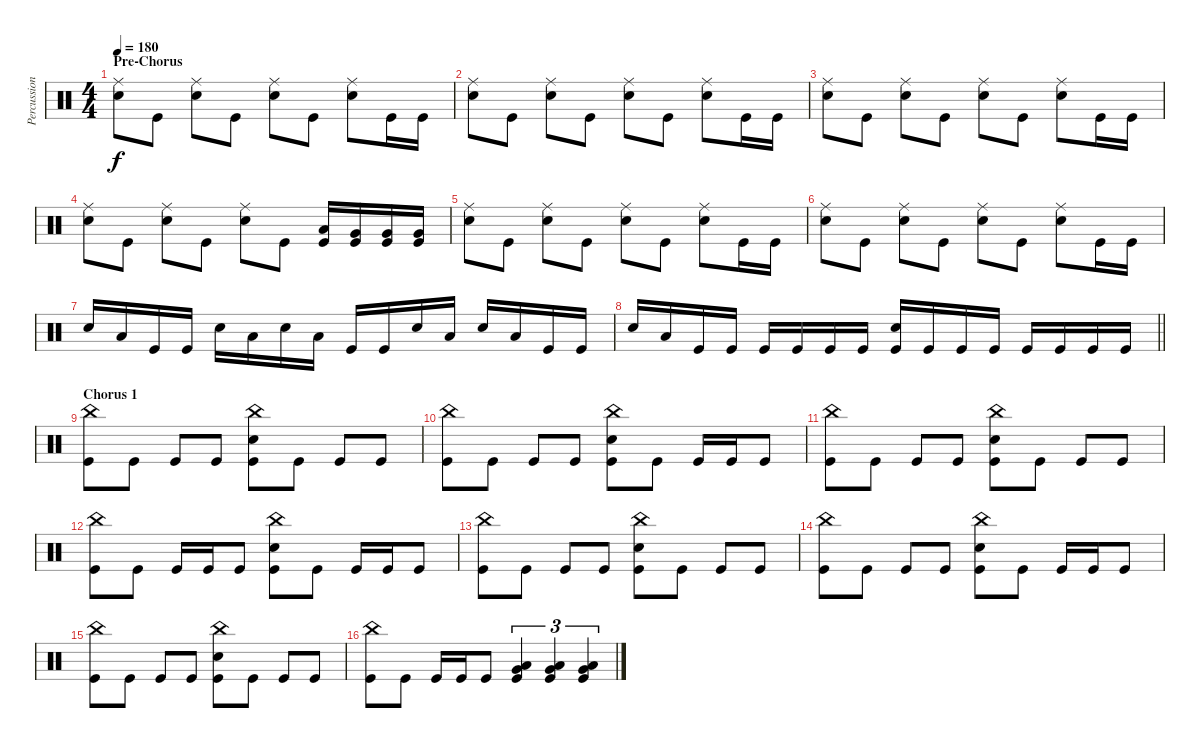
\track ("Percussion" "Percussion") {instrument percussion}
\staff {score}
\articulation defaults
\ts (4 4)
\section ("" "Pre-Chorus")
\tempo 180
\clef neutral
\ks c
("Ride (middle)" "Snare (hit) 2").8{dy f} "Kick (hit)".8 ("Ride (middle)" "Snare (hit) 2").8 "Kick (hit)".8 ("Snare (hit) 2" "Ride (middle)").8 "Kick (hit)".8 ("Ride (middle)" "Snare (hit) 2").8 "Kick (hit)".16 "Kick (hit)".16 |
("Ride (middle)" "Snare (hit) 2").8 "Kick (hit)".8 ("Ride (middle)" "Snare (hit) 2").8 "Kick (hit)".8 ("Snare (hit) 2" "Ride (middle)").8 "Kick (hit)".8 ("Ride (middle)" "Snare (hit) 2").8 "Kick (hit)".16 "Kick (hit)".16 |
("Ride (middle)" "Snare (hit) 2").8 "Kick (hit)".8 ("Ride (middle)" "Snare (hit) 2").8 "Kick (hit)".8 ("Snare (hit) 2" "Ride (middle)").8 "Kick (hit)".8 ("Ride (middle)" "Snare (hit) 2").8 "Kick (hit)".16 "Kick (hit)".16 |
("Ride (middle)" "Snare (hit) 2").8 "Kick (hit)".8 ("Ride (middle)" "Snare (hit) 2").8 "Kick (hit)".8 ("Snare (hit) 2" "Ride (middle)").8 "Kick (hit)".8 ("Low Tom (hit)" "Kick (hit)").16 ("Very Low Tom (hit)" "Kick (hit)").16 ("Very Low Tom (hit)" "Kick (hit)").16 ("Very Low Tom (hit)" "Kick (hit)").16 |
("Ride (middle)" "Snare (hit) 2").8 "Kick (hit)".8 ("Ride (middle)" "Snare (hit) 2").8 "Kick (hit)".8 ("Snare (hit) 2" "Ride (middle)").8 "Kick (hit)".8 ("Ride (middle)" "Snare (hit) 2").8 "Kick (hit)".16 "Kick (hit)".16 |
("Ride (middle)" "Snare (hit) 2").8 "Kick (hit)".8 ("Ride (middle)" "Snare (hit) 2").8 "Kick (hit)".8 ("Snare (hit) 2" "Ride (middle)").8 "Kick (hit)".8 ("Ride (middle)" "Snare (hit) 2").8 "Kick (hit)".16 "Kick (hit)".16 |
"Snare (hit) 2".16 "Low Tom (hit)".16 "Kick (hit)".16 "Kick (hit)".16 "Snare (hit) 2".16 "Low Tom (hit)".16 "Snare (hit) 2".16 "Low Tom (hit)".16 "Kick (hit)".16 "Kick (hit)".16 "Snare (hit) 2".16 "Low Tom (hit)".16 "Snare (hit) 2".16 "Low Tom (hit)".16 "Kick (hit)".16 "Kick (hit)".16 |
\barLineRight lightlight "Snare (hit) 2".16 "Low Tom (hit)".16 "Kick (hit)".16 "Kick (hit)".16 "Kick (hit)".16 "Kick (hit)".16 "Kick (hit)".16 "Kick (hit)".16
("Snare (hit) 2" "Kick (hit)").16 "Kick (hit)".16 "Kick (hit)".16 "Kick (hit)".16 "Kick (hit)".16 "Kick (hit)".16 "Kick (hit)".16 "Kick (hit)".16 |
\section ("" "Chorus 1")
("China (hit)" "Kick (hit)").8 "Kick (hit)".8 "Kick (hit)".8 "Kick (hit)".8 ("China (hit)" "Kick (hit)" "Snare (hit) 2").8 "Kick (hit)".8 "Kick (hit)".8 "Kick (hit)".8 |
("China (hit)" "Kick (hit)").8 "Kick (hit)".8 "Kick (hit)".8 "Kick (hit)".8 ("China (hit)" "Kick (hit)" "Snare (hit) 2").8 "Kick (hit)".8 "Kick (hit)".16 "Kick (hit)".16 "Kick (hit)".8 |
("China (hit)" "Kick (hit)").8 "Kick (hit)".8 "Kick (hit)".8 "Kick (hit)".8 ("China (hit)" "Kick (hit)" "Snare (hit) 2").8 "Kick (hit)".8 "Kick (hit)".8 "Kick (hit)".8 |
("China (hit)" "Kick (hit)").8 "Kick (hit)".8 "Kick (hit)".16 "Kick (hit)".16 "Kick (hit)".8 ("China (hit)" "Kick (hit)" "Snare (hit) 2").8 "Kick (hit)".8 "Kick (hit)".16 "Kick (hit)".16 "Kick (hit)".8 |
("China (hit)" "Kick (hit)").8 "Kick (hit)".8 "Kick (hit)".8 "Kick (hit)".8 ("China (hit)" "Kick (hit)" "Snare (hit) 2").8 "Kick (hit)".8 "Kick (hit)".8 "Kick (hit)".8 |
("China (hit)" "Kick (hit)").8 "Kick (hit)".8 "Kick (hit)".8 "Kick (hit)".8 ("China (hit)" "Kick (hit)" "Snare (hit) 2").8 "Kick (hit)".8 "Kick (hit)".16 "Kick (hit)".16 "Kick (hit)".8 |
("China (hit)" "Kick (hit)").8 "Kick (hit)".8 "Kick (hit)".8 "Kick (hit)".8 ("China (hit)" "Kick (hit)" "Snare (hit) 2").8 "Kick (hit)".8 "Kick (hit)".8 "Kick (hit)".8 |
("China (hit)" "Kick (hit)").8 "Kick (hit)".8 "Kick (hit)".16 "Kick (hit)".16 "Kick (hit)".8 ("Kick (hit)" "Low Tom (hit)" "Very Low Tom (hit)").4{tu (3 2)} ("Kick (hit)" "Low Tom (hit)" "Very Low Tom (hit)").4{tu (3 2)} ("Kick (hit)" "Low Tom (hit)" "Very Low Tom (hit)").4{tu (3 2)}
